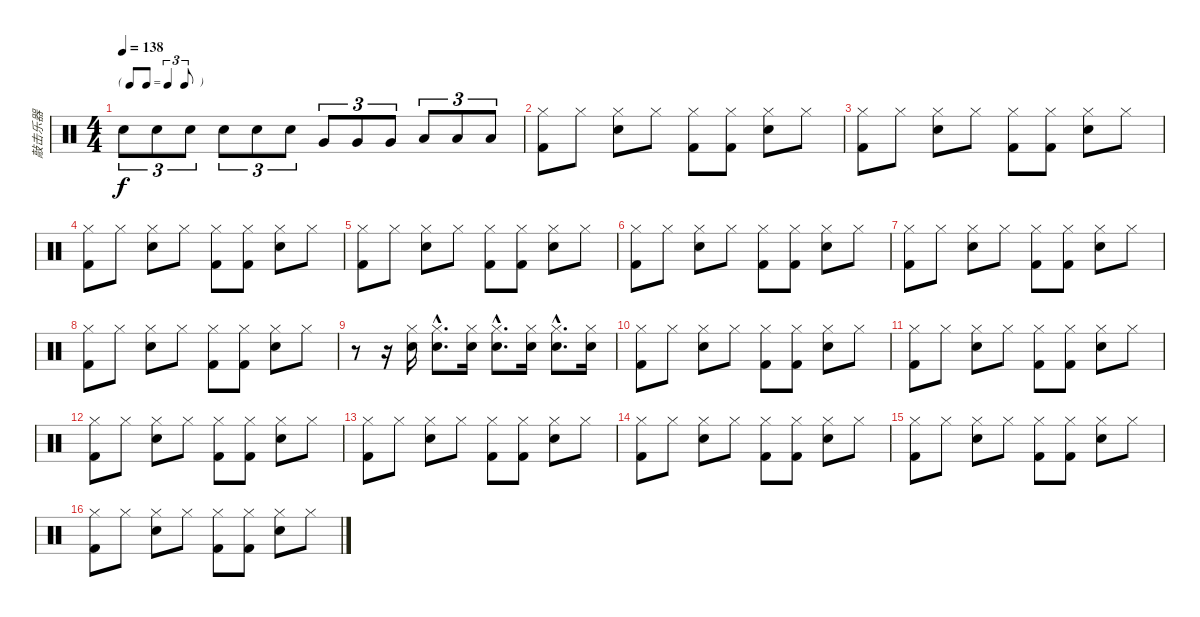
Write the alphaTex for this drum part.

\track ("敲击乐器" "敲击乐器") {instrument percussion}
\staff {score}
\articulation defaults
\ts (4 4)
\tf triplet8th
\tempo 138
\clef neutral
\ks c "Snare (hit) 2".8{tu (3 2) dy f} "Snare (hit) 2".8{tu (3 2)} "Snare (hit) 2".8{tu (3 2)} "Snare (hit) 2".8{tu (3 2)} "Snare (hit) 2".8{tu (3 2)} "Snare (hit) 2".8{tu (3 2)} "Very Low Tom (hit)".8{tu (3 2)} "Very Low Tom (hit)".8{tu (3 2)} "Very Low Tom (hit)".8{tu (3 2)} "Low Floor Tom (hit)".8{tu (3 2)} "Low Floor Tom (hit)".8{tu (3 2)} "Low Floor Tom (hit)".8{tu (3 2)}
|
("Hi-Hat (closed)" "Kick (hit) 2").8 "Hi-Hat (closed)".8 ("Hi-Hat (closed)" "Electric Snare (hit)").8 "Hi-Hat (closed)".8 ("Hi-Hat (closed)" "Kick (hit) 2").8 ("Hi-Hat (closed)" "Kick (hit) 2").8 ("Hi-Hat (closed)" "Electric Snare (hit)").8 "Hi-Hat (closed)".8 |
("Hi-Hat (closed)" "Kick (hit) 2").8 "Hi-Hat (closed)".8 ("Hi-Hat (closed)" "Electric Snare (hit)").8 "Hi-Hat (closed)".8 ("Hi-Hat (closed)" "Kick (hit) 2").8 ("Hi-Hat (closed)" "Kick (hit) 2").8 ("Hi-Hat (closed)" "Electric Snare (hit)").8 "Hi-Hat (closed)".8 |
("Hi-Hat (closed)" "Kick (hit) 2").8 "Hi-Hat (closed)".8 ("Hi-Hat (closed)" "Electric Snare (hit)").8 "Hi-Hat (closed)".8 ("Hi-Hat (closed)" "Kick (hit) 2").8 ("Hi-Hat (closed)" "Kick (hit) 2").8 ("Hi-Hat (closed)" "Electric Snare (hit)").8 "Hi-Hat (closed)".8 |
("Hi-Hat (closed)" "Kick (hit) 2").8 "Hi-Hat (closed)".8 ("Hi-Hat (closed)" "Electric Snare (hit)").8 "Hi-Hat (closed)".8 ("Hi-Hat (closed)" "Kick (hit) 2").8 ("Hi-Hat (closed)" "Kick (hit) 2").8 ("Hi-Hat (closed)" "Electric Snare (hit)").8 "Hi-Hat (closed)".8 |
("Hi-Hat (closed)" "Kick (hit) 2").8 "Hi-Hat (closed)".8 ("Hi-Hat (closed)" "Electric Snare (hit)").8 "Hi-Hat (closed)".8 ("Hi-Hat (closed)" "Kick (hit) 2").8 ("Hi-Hat (closed)" "Kick (hit) 2").8 ("Hi-Hat (closed)" "Electric Snare (hit)").8 "Hi-Hat (closed)".8 |
("Hi-Hat (closed)" "Kick (hit) 2").8 "Hi-Hat (closed)".8 ("Hi-Hat (closed)" "Electric Snare (hit)").8 "Hi-Hat (closed)".8 ("Hi-Hat (closed)" "Kick (hit) 2").8 ("Hi-Hat (closed)" "Kick (hit) 2").8 ("Hi-Hat (closed)" "Electric Snare (hit)").8 "Hi-Hat (closed)".8 |
("Hi-Hat (closed)" "Kick (hit) 2").8 "Hi-Hat (closed)".8 ("Hi-Hat (closed)" "Electric Snare (hit)").8 "Hi-Hat (closed)".8 ("Hi-Hat (closed)" "Kick (hit) 2").8 ("Hi-Hat (closed)" "Kick (hit) 2").8 ("Hi-Hat (closed)" "Electric Snare (hit)").8 "Hi-Hat (closed)".8 |
r.8 r.16 ("Hi-Hat (closed)" "Electric Snare (hit)").16 ("Hi-Hat (closed)"{hac} "Electric Snare (hit)"{hac}).8{d} ("Hi-Hat (closed)" "Electric Snare (hit)").16 ("Hi-Hat (closed)"{hac} "Electric Snare (hit)"{hac}).8{d} ("Hi-Hat (closed)" "Electric Snare (hit)").16 ("Hi-Hat (closed)"{hac} "Electric Snare (hit)"{hac}).8{d} ("Hi-Hat (closed)" "Electric Snare (hit)").16 |
("Hi-Hat (closed)" "Kick (hit) 2").8 "Hi-Hat (closed)".8 ("Hi-Hat (closed)" "Electric Snare (hit)").8 "Hi-Hat (closed)".8 ("Hi-Hat (closed)" "Kick (hit) 2").8 ("Hi-Hat (closed)" "Kick (hit) 2").8 ("Hi-Hat (closed)" "Electric Snare (hit)").8 "Hi-Hat (closed)".8 |
("Hi-Hat (closed)" "Kick (hit) 2").8 "Hi-Hat (closed)".8 ("Hi-Hat (closed)" "Electric Snare (hit)").8 "Hi-Hat (closed)".8 ("Hi-Hat (closed)" "Kick (hit) 2").8 ("Hi-Hat (closed)" "Kick (hit) 2").8 ("Hi-Hat (closed)" "Electric Snare (hit)").8 "Hi-Hat (closed)".8 |
("Hi-Hat (closed)" "Kick (hit) 2").8 "Hi-Hat (closed)".8 ("Hi-Hat (closed)" "Electric Snare (hit)").8 "Hi-Hat (closed)".8 ("Hi-Hat (closed)" "Kick (hit) 2").8 ("Hi-Hat (closed)" "Kick (hit) 2").8 ("Hi-Hat (closed)" "Electric Snare (hit)").8 "Hi-Hat (closed)".8 |
("Hi-Hat (closed)" "Kick (hit) 2").8 "Hi-Hat (closed)".8 ("Hi-Hat (closed)" "Electric Snare (hit)").8 "Hi-Hat (closed)".8 ("Hi-Hat (closed)" "Kick (hit) 2").8 ("Hi-Hat (closed)" "Kick (hit) 2").8 ("Hi-Hat (closed)" "Electric Snare (hit)").8 "Hi-Hat (closed)".8 |
("Hi-Hat (closed)" "Kick (hit) 2").8 "Hi-Hat (closed)".8 ("Hi-Hat (closed)" "Electric Snare (hit)").8 "Hi-Hat (closed)".8 ("Hi-Hat (closed)" "Kick (hit) 2").8 ("Hi-Hat (closed)" "Kick (hit) 2").8 ("Hi-Hat (closed)" "Electric Snare (hit)").8 "Hi-Hat (closed)".8 |
("Hi-Hat (closed)" "Kick (hit) 2").8 "Hi-Hat (closed)".8 ("Hi-Hat (closed)" "Electric Snare (hit)").8 "Hi-Hat (closed)".8 ("Hi-Hat (closed)" "Kick (hit) 2").8 ("Hi-Hat (closed)" "Kick (hit) 2").8 ("Hi-Hat (closed)" "Electric Snare (hit)").8 "Hi-Hat (closed)".8 |
("Hi-Hat (closed)" "Kick (hit) 2").8 "Hi-Hat (closed)".8 ("Hi-Hat (closed)" "Electric Snare (hit)").8 "Hi-Hat (closed)".8 ("Hi-Hat (closed)" "Kick (hit) 2").8 ("Hi-Hat (closed)" "Kick (hit) 2").8 ("Hi-Hat (closed)" "Electric Snare (hit)").8 "Hi-Hat (closed)".8
